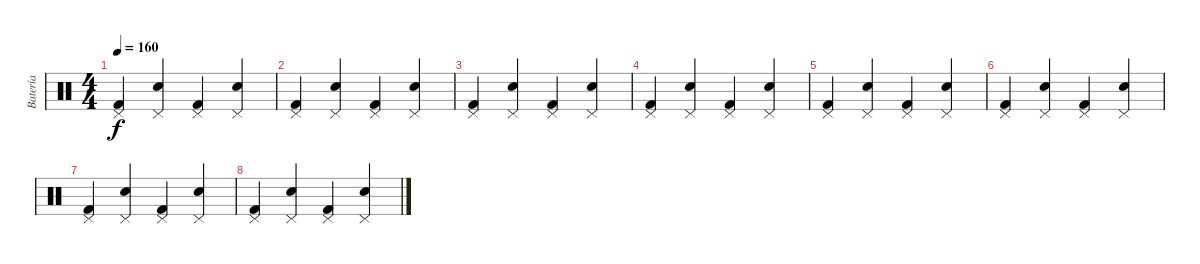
\track ("Batería " "Batería ") {instrument percussion}
\staff {score}
\articulation defaults
\ts (4 4)
\tempo 160
\clef neutral
\ks c
("Kick (hit) 2" "Pedal Hi-Hat (hit)").4{dy f} ("Snare (hit) 2" "Pedal Hi-Hat (hit)").4 ("Kick (hit) 2" "Pedal Hi-Hat (hit)").4 ("Snare (hit) 2" "Pedal Hi-Hat (hit)").4 |
("Kick (hit) 2" "Pedal Hi-Hat (hit)").4 ("Snare (hit) 2" "Pedal Hi-Hat (hit)").4 ("Kick (hit) 2" "Pedal Hi-Hat (hit)").4 ("Snare (hit) 2" "Pedal Hi-Hat (hit)").4 |
("Kick (hit) 2" "Pedal Hi-Hat (hit)").4 ("Snare (hit) 2" "Pedal Hi-Hat (hit)").4 ("Kick (hit) 2" "Pedal Hi-Hat (hit)").4 ("Snare (hit) 2" "Pedal Hi-Hat (hit)").4 |
("Kick (hit) 2" "Pedal Hi-Hat (hit)").4 ("Snare (hit) 2" "Pedal Hi-Hat (hit)").4 ("Kick (hit) 2" "Pedal Hi-Hat (hit)").4 ("Snare (hit) 2" "Pedal Hi-Hat (hit)").4 |
("Kick (hit) 2" "Pedal Hi-Hat (hit)").4 ("Snare (hit) 2" "Pedal Hi-Hat (hit)").4 ("Kick (hit) 2" "Pedal Hi-Hat (hit)").4 ("Snare (hit) 2" "Pedal Hi-Hat (hit)").4 |
("Kick (hit) 2" "Pedal Hi-Hat (hit)").4 ("Snare (hit) 2" "Pedal Hi-Hat (hit)").4 ("Kick (hit) 2" "Pedal Hi-Hat (hit)").4 ("Snare (hit) 2" "Pedal Hi-Hat (hit)").4 |
("Kick (hit) 2" "Pedal Hi-Hat (hit)").4 ("Snare (hit) 2" "Pedal Hi-Hat (hit)").4 ("Kick (hit) 2" "Pedal Hi-Hat (hit)").4 ("Snare (hit) 2" "Pedal Hi-Hat (hit)").4 |
("Kick (hit) 2" "Pedal Hi-Hat (hit)").4 ("Snare (hit) 2" "Pedal Hi-Hat (hit)").4 ("Kick (hit) 2" "Pedal Hi-Hat (hit)").4 ("Snare (hit) 2" "Pedal Hi-Hat (hit)").4
